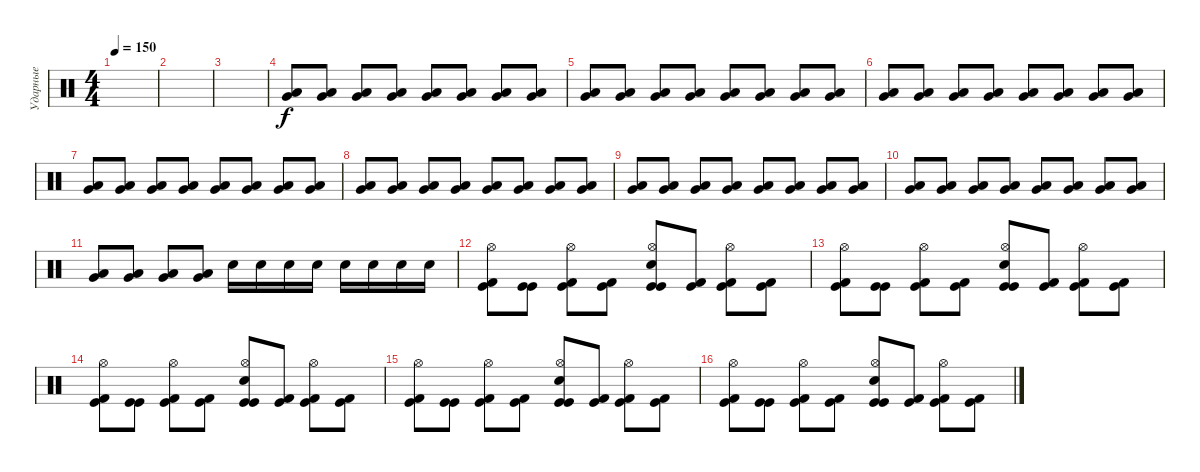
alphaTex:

\track ("Ударные" "Ударные") {instrument percussion}
\staff {score}
\articulation defaults
\ts (4 4)
\tempo 150
\clef neutral
\ks c
|
|
|
("Low Tom (hit)" "Very Low Tom (hit)").8{volume 4} ("Low Tom (hit)" "Very Low Tom (hit)").8 ("Low Tom (hit)" "Very Low Tom (hit)").8 ("Low Tom (hit)" "Very Low Tom (hit)").8 ("Low Tom (hit)" "Very Low Tom (hit)").8 ("Low Tom (hit)" "Very Low Tom (hit)").8 ("Low Tom (hit)" "Very Low Tom (hit)").8 ("Low Tom (hit)" "Very Low Tom (hit)").8 |
("Low Tom (hit)" "Very Low Tom (hit)").8 ("Low Tom (hit)" "Very Low Tom (hit)").8 ("Low Tom (hit)" "Very Low Tom (hit)").8 ("Low Tom (hit)" "Very Low Tom (hit)").8 ("Low Tom (hit)" "Very Low Tom (hit)").8 ("Low Tom (hit)" "Very Low Tom (hit)").8 ("Low Tom (hit)" "Very Low Tom (hit)").8 ("Low Tom (hit)" "Very Low Tom (hit)").8 |
("Low Tom (hit)" "Very Low Tom (hit)").8 ("Low Tom (hit)" "Very Low Tom (hit)").8 ("Low Tom (hit)" "Very Low Tom (hit)").8 ("Low Tom (hit)" "Very Low Tom (hit)").8 ("Low Tom (hit)" "Very Low Tom (hit)").8 ("Low Tom (hit)" "Very Low Tom (hit)").8 ("Low Tom (hit)" "Very Low Tom (hit)").8 ("Low Tom (hit)" "Very Low Tom (hit)").8 |
("Low Tom (hit)" "Very Low Tom (hit)").8 ("Low Tom (hit)" "Very Low Tom (hit)").8 ("Low Tom (hit)" "Very Low Tom (hit)").8 ("Low Tom (hit)" "Very Low Tom (hit)").8 ("Low Tom (hit)" "Very Low Tom (hit)").8 ("Low Tom (hit)" "Very Low Tom (hit)").8 ("Low Tom (hit)" "Very Low Tom (hit)").8 ("Low Tom (hit)" "Very Low Tom (hit)").8 |
("Low Tom (hit)" "Very Low Tom (hit)").8 ("Low Tom (hit)" "Very Low Tom (hit)").8 ("Low Tom (hit)" "Very Low Tom (hit)").8 ("Low Tom (hit)" "Very Low Tom (hit)").8 ("Low Tom (hit)" "Very Low Tom (hit)").8 ("Low Tom (hit)" "Very Low Tom (hit)").8 ("Low Tom (hit)" "Very Low Tom (hit)").8 ("Low Tom (hit)" "Very Low Tom (hit)").8 |
("Low Tom (hit)" "Very Low Tom (hit)").8 ("Low Tom (hit)" "Very Low Tom (hit)").8 ("Low Tom (hit)" "Very Low Tom (hit)").8 ("Low Tom (hit)" "Very Low Tom (hit)").8 ("Low Tom (hit)" "Very Low Tom (hit)").8 ("Low Tom (hit)" "Very Low Tom (hit)").8 ("Low Tom (hit)" "Very Low Tom (hit)").8 ("Low Tom (hit)" "Very Low Tom (hit)").8 |
("Low Tom (hit)" "Very Low Tom (hit)").8{volume 16} ("Low Tom (hit)" "Very Low Tom (hit)").8 ("Low Tom (hit)" "Very Low Tom (hit)").8 ("Low Tom (hit)" "Very Low Tom (hit)").8 ("Low Tom (hit)" "Very Low Tom (hit)").8 ("Low Tom (hit)" "Very Low Tom (hit)").8 ("Low Tom (hit)" "Very Low Tom (hit)").8 ("Low Tom (hit)" "Very Low Tom (hit)").8 |
("Low Tom (hit)" "Very Low Tom (hit)").8 ("Low Tom (hit)" "Very Low Tom (hit)").8 ("Low Tom (hit)" "Very Low Tom (hit)").8 ("Low Tom (hit)" "Very Low Tom (hit)").8 "Electric Snare (hit)".16 "Electric Snare (hit)".16 "Electric Snare (hit)".16 "Electric Snare (hit)".16 "Electric Snare (hit)".16 "Electric Snare (hit)".16 "Electric Snare (hit)".16 "Electric Snare (hit)".16 |
("Hi-Hat (open)" "Kick (hit)" "Kick (hit) 2").8 ("Kick (hit)" "Kick (hit)").8 ("Hi-Hat (open)" "Kick (hit)" "Kick (hit) 2").8 ("Kick (hit)" "Kick (hit) 2").8 ("Hi-Hat (open)" "Electric Snare (hit)" "Kick (hit)" "Kick (hit)").8 ("Kick (hit)" "Kick (hit) 2").8 ("Hi-Hat (open)" "Kick (hit)" "Kick (hit) 2").8 ("Kick (hit)" "Kick (hit) 2").8 |
("Hi-Hat (open)" "Kick (hit)" "Kick (hit) 2").8 ("Kick (hit)" "Kick (hit)").8 ("Hi-Hat (open)" "Kick (hit)" "Kick (hit) 2").8 ("Kick (hit)" "Kick (hit) 2").8 ("Hi-Hat (open)" "Electric Snare (hit)" "Kick (hit)" "Kick (hit)").8 ("Kick (hit)" "Kick (hit) 2").8 ("Hi-Hat (open)" "Kick (hit)" "Kick (hit) 2").8 ("Kick (hit)" "Kick (hit) 2").8 |
("Hi-Hat (open)" "Kick (hit)" "Kick (hit) 2").8 ("Kick (hit)" "Kick (hit)").8 ("Hi-Hat (open)" "Kick (hit)" "Kick (hit) 2").8 ("Kick (hit)" "Kick (hit) 2").8 ("Hi-Hat (open)" "Electric Snare (hit)" "Kick (hit)" "Kick (hit)").8 ("Kick (hit)" "Kick (hit) 2").8 ("Hi-Hat (open)" "Kick (hit)" "Kick (hit) 2").8 ("Kick (hit)" "Kick (hit) 2").8 |
("Hi-Hat (open)" "Kick (hit)" "Kick (hit) 2").8 ("Kick (hit)" "Kick (hit)").8 ("Hi-Hat (open)" "Kick (hit)" "Kick (hit) 2").8 ("Kick (hit)" "Kick (hit) 2").8 ("Hi-Hat (open)" "Electric Snare (hit)" "Kick (hit)" "Kick (hit)").8 ("Kick (hit)" "Kick (hit) 2").8 ("Hi-Hat (open)" "Kick (hit)" "Kick (hit) 2").8 ("Kick (hit)" "Kick (hit) 2").8 |
("Hi-Hat (open)" "Kick (hit)" "Kick (hit) 2").8 ("Kick (hit)" "Kick (hit)").8 ("Hi-Hat (open)" "Kick (hit)" "Kick (hit) 2").8 ("Kick (hit)" "Kick (hit) 2").8 ("Hi-Hat (open)" "Electric Snare (hit)" "Kick (hit)" "Kick (hit)").8 ("Kick (hit)" "Kick (hit) 2").8 ("Hi-Hat (open)" "Kick (hit)" "Kick (hit) 2").8 ("Kick (hit)" "Kick (hit) 2").8
